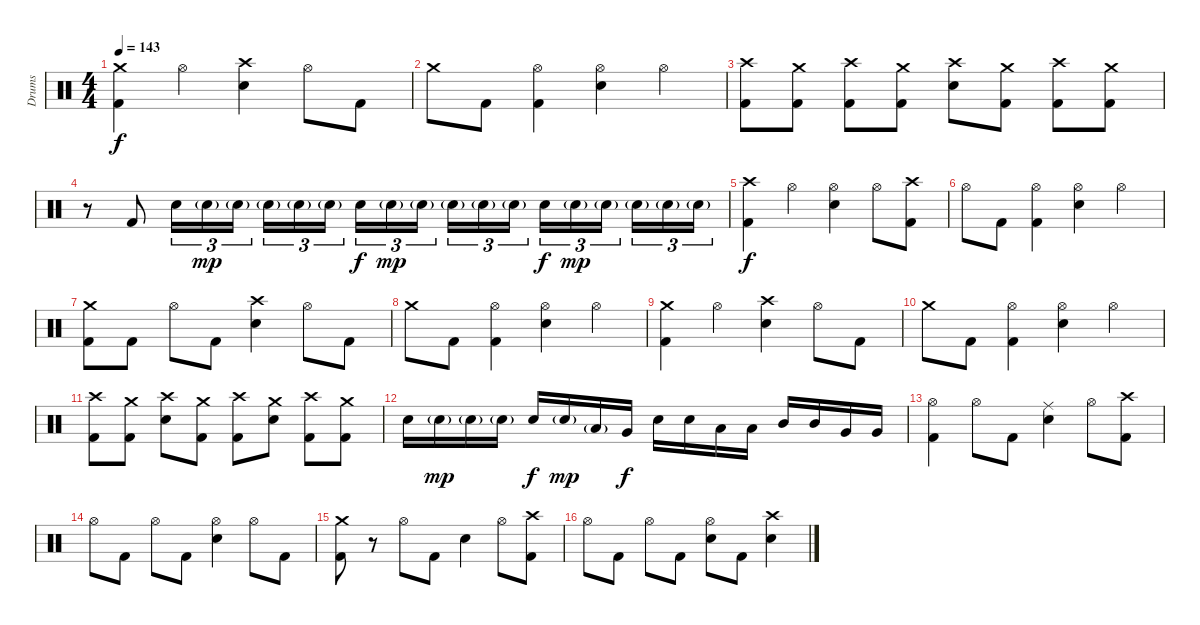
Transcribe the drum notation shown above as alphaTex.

\track ("Drums" "Drums") {instrument percussion}
\staff {score}
\articulation defaults
\ts (4 4)
\tempo 143
\clef neutral
\ks c
("Crash medium (hit)" "Kick (hit) 2").4{dy f} "Hi-Hat (open)".4 ("Crash high (hit)" "Electric Snare (hit)").4 "Hi-Hat (open)".8 "Kick (hit) 2".8 |
"Crash medium (hit)".8 "Kick (hit) 2".8 ("Hi-Hat (open)" "Kick (hit) 2").4 ("Hi-Hat (open)" "Electric Snare (hit)").4 "Hi-Hat (open)".4 |
("Crash high (hit)" "Kick (hit) 2").8 ("Crash medium (hit)" "Kick (hit) 2").8 ("Crash high (hit)" "Kick (hit) 2").8 ("Crash medium (hit)" "Kick (hit) 2").8 ("Crash high (hit)" "Electric Snare (hit)").8 ("Crash medium (hit)" "Kick (hit) 2").8 ("Crash high (hit)" "Kick (hit) 2").8 ("Crash medium (hit)" "Kick (hit) 2").8 |
r.8 "Kick (hit) 2".8 "Electric Snare (hit)".16{tu (3 2)} "Electric Snare (hit)"{g}.16{tu (3 2) dy mp} "Electric Snare (hit)"{g}.16{tu (3 2) beam splitsecondary} "Electric Snare (hit)"{g}.16{tu (3 2)} "Electric Snare (hit)"{g}.16{tu (3 2)} "Electric Snare (hit)"{g}.16{tu (3 2)} "Electric Snare (hit)".16{tu (3 2) dy f} "Electric Snare (hit)"{g}.16{tu (3 2) dy mp} "Electric Snare (hit)"{g}.16{tu (3 2) beam splitsecondary} "Electric Snare (hit)"{g}.16{tu (3 2)} "Electric Snare (hit)"{g}.16{tu (3 2)} "Electric Snare (hit)"{g}.16{tu (3 2)} "Electric Snare (hit)".16{tu (3 2) dy f} "Electric Snare (hit)"{g}.16{tu (3 2) dy mp} "Electric Snare (hit)"{g}.16{tu (3 2) beam splitsecondary} "Electric Snare (hit)"{g}.16{tu (3 2)} "Electric Snare (hit)"{g}.16{tu (3 2)} "Electric Snare (hit)"{g}.16{tu (3 2)} |
("Crash high (hit)" "Kick (hit) 2").4{dy f} "Hi-Hat (open)".4 ("Hi-Hat (open)" "Electric Snare (hit)").4 "Hi-Hat (open)".8 ("Crash high (hit)" "Kick (hit) 2").8 |
"Hi-Hat (open)".8 "Kick (hit) 2".8 ("Hi-Hat (open)" "Kick (hit) 2").4 ("Hi-Hat (open)" "Electric Snare (hit)").4 "Hi-Hat (open)".4 |
("Crash medium (hit)" "Kick (hit) 2").8 "Kick (hit) 2".8 "Hi-Hat (open)".8 "Kick (hit) 2".8 ("Crash high (hit)" "Electric Snare (hit)").4 "Hi-Hat (open)".8 "Kick (hit) 2".8 |
"Crash medium (hit)".8 "Kick (hit) 2".8 ("Hi-Hat (open)" "Kick (hit) 2").4 ("Hi-Hat (open)" "Electric Snare (hit)").4 "Hi-Hat (open)".4 |
("Crash medium (hit)" "Kick (hit) 2").4 "Hi-Hat (open)".4 ("Crash high (hit)" "Electric Snare (hit)").4 "Hi-Hat (open)".8 "Kick (hit) 2".8 |
"Crash medium (hit)".8 "Kick (hit) 2".8 ("Hi-Hat (open)" "Kick (hit) 2").4 ("Hi-Hat (open)" "Electric Snare (hit)").4 "Hi-Hat (open)".4 |
("Crash high (hit)" "Kick (hit) 2").8 ("Crash medium (hit)" "Kick (hit) 2").8 ("Crash high (hit)" "Electric Snare (hit)").8 ("Crash medium (hit)" "Kick (hit) 2").8 ("Crash high (hit)" "Kick (hit) 2").8 ("Crash medium (hit)" "Electric Snare (hit)").8 ("Crash high (hit)" "Kick (hit) 2").8 ("Crash medium (hit)" "Kick (hit) 2").8 |
"Electric Snare (hit)".16 "Electric Snare (hit)"{g}.16{dy mp} "Electric Snare (hit)"{g}.16 "Electric Snare (hit)"{g}.16 "Electric Snare (hit)".16{dy f} "Electric Snare (hit)"{g}.16{dy mp} "Low Tom (hit)"{g}.16 "Very Low Tom (hit)".16{dy f} "Electric Snare (hit)".16 "Electric Snare (hit)".16 "Low Tom (hit)".16 "Low Tom (hit)".16 "Mid Tom (hit)".16 "Mid Tom (hit)".16 "Very Low Tom (hit)".16 "Very Low Tom (hit)".16 |
("Hi-Hat (open)" "Kick (hit) 2").4 "Hi-Hat (open)".8 "Kick (hit) 2".8 ("Ride (middle)" "Electric Snare (hit)").4 "Hi-Hat (open)".8 ("Crash high (hit)" "Kick (hit) 2").8 |
"Hi-Hat (open)".8 "Kick (hit) 2".8 "Hi-Hat (open)".8 "Kick (hit) 2".8 ("Hi-Hat (open)" "Electric Snare (hit)").4 "Hi-Hat (open)".8 "Kick (hit) 2".8 |
("Crash medium (hit)" "Kick (hit) 2").8 r.8 "Hi-Hat (open)".8 "Kick (hit) 2".8 "Electric Snare (hit)".4 "Hi-Hat (open)".8 ("Crash high (hit)" "Kick (hit) 2").8 |
"Hi-Hat (open)".8 "Kick (hit) 2".8 "Hi-Hat (open)".8 "Kick (hit) 2".8 ("Hi-Hat (open)" "Electric Snare (hit)").8 "Kick (hit) 2".8 ("Crash high (hit)" "Electric Snare (hit)").4
